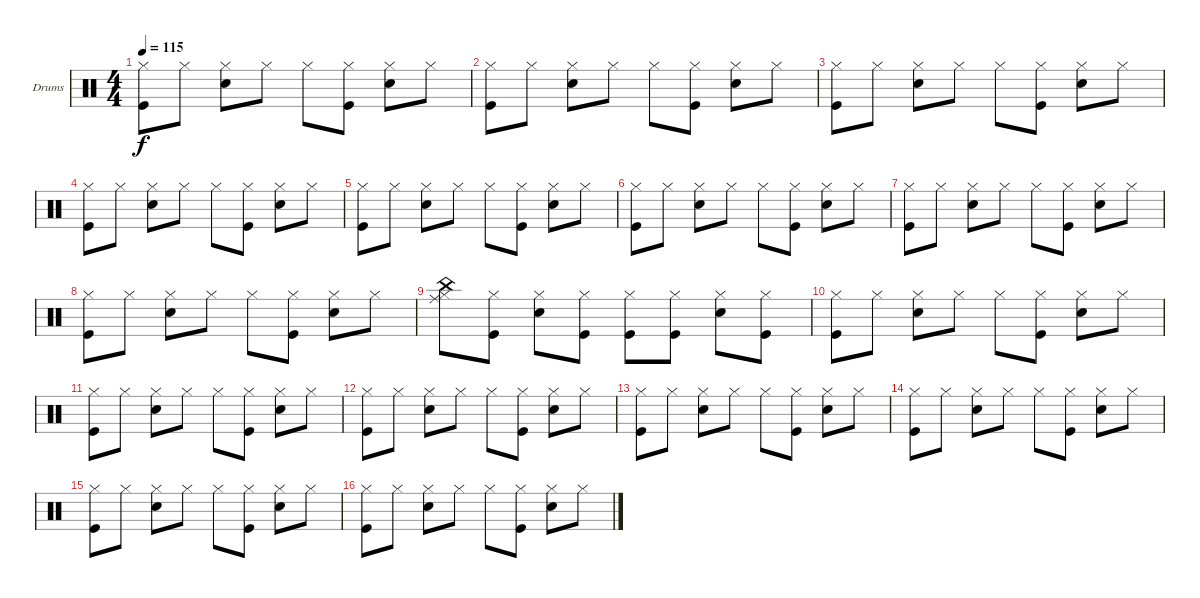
\defaultSystemsLayout 4
\bracketExtendMode groupsimilarinstruments
\firstSystemTrackNameOrientation horizontal
\otherSystemsTrackNameOrientation horizontal
\track ("Drumkit" "Drums") {instrument percussion}
\staff {score}
\articulation defaults
\ts (4 4)
\tempo 115
\clef neutral
\ks c
("Kick (hit)" "Hi-Hat (closed)").8{dy f} "Hi-Hat (closed)".8 ("Hi-Hat (closed)" "Snare (hit) 2").8 "Hi-Hat (closed)".8 "Hi-Hat (closed)".8 ("Hi-Hat (closed)" "Kick (hit)").8 ("Hi-Hat (closed)" "Snare (hit) 2").8 "Hi-Hat (closed)".8 |
("Kick (hit)" "Hi-Hat (closed)").8 "Hi-Hat (closed)".8 ("Hi-Hat (closed)" "Snare (hit) 2").8 "Hi-Hat (closed)".8 "Hi-Hat (closed)".8 ("Hi-Hat (closed)" "Kick (hit)").8 ("Hi-Hat (closed)" "Snare (hit) 2").8 "Hi-Hat (closed)".8 |
("Kick (hit)" "Hi-Hat (closed)").8 "Hi-Hat (closed)".8 ("Hi-Hat (closed)" "Snare (hit) 2").8 "Hi-Hat (closed)".8 "Hi-Hat (closed)".8 ("Hi-Hat (closed)" "Kick (hit)").8 ("Hi-Hat (closed)" "Snare (hit) 2").8 "Hi-Hat (closed)".8 |
("Kick (hit)" "Hi-Hat (closed)").8 "Hi-Hat (closed)".8 ("Hi-Hat (closed)" "Snare (hit) 2").8 "Hi-Hat (closed)".8 "Hi-Hat (closed)".8 ("Hi-Hat (closed)" "Kick (hit)").8 ("Hi-Hat (closed)" "Snare (hit) 2").8 "Hi-Hat (closed)".8 |
("Kick (hit)" "Hi-Hat (closed)").8 "Hi-Hat (closed)".8 ("Hi-Hat (closed)" "Snare (hit) 2").8 "Hi-Hat (closed)".8 "Hi-Hat (closed)".8 ("Hi-Hat (closed)" "Kick (hit)").8 ("Hi-Hat (closed)" "Snare (hit) 2").8 "Hi-Hat (closed)".8 |
("Kick (hit)" "Hi-Hat (closed)").8 "Hi-Hat (closed)".8 ("Hi-Hat (closed)" "Snare (hit) 2").8 "Hi-Hat (closed)".8 "Hi-Hat (closed)".8 ("Hi-Hat (closed)" "Kick (hit)").8 ("Hi-Hat (closed)" "Snare (hit) 2").8 "Hi-Hat (closed)".8 |
("Kick (hit)" "Hi-Hat (closed)").8 "Hi-Hat (closed)".8 ("Hi-Hat (closed)" "Snare (hit) 2").8 "Hi-Hat (closed)".8 "Hi-Hat (closed)".8 ("Hi-Hat (closed)" "Kick (hit)").8 ("Hi-Hat (closed)" "Snare (hit) 2").8 "Hi-Hat (closed)".8 |
("Kick (hit)" "Hi-Hat (closed)").8 "Hi-Hat (closed)".8 ("Hi-Hat (closed)" "Snare (hit) 2").8 "Hi-Hat (closed)".8 "Hi-Hat (closed)".8 ("Hi-Hat (closed)" "Kick (hit)").8 ("Hi-Hat (closed)" "Snare (hit) 2").8 "Hi-Hat (closed)".8 |
("China (hit)" "Hi-Hat (closed)" "Ride (middle)").8 ("Kick (hit)" "Hi-Hat (closed)").8 ("Hi-Hat (closed)" "Snare (hit) 2").8 ("Hi-Hat (closed)" "Kick (hit)").8 ("Hi-Hat (closed)" "Kick (hit)").8 ("Hi-Hat (closed)" "Kick (hit)").8 ("Hi-Hat (closed)" "Snare (hit) 2").8 ("Hi-Hat (closed)" "Kick (hit)").8 |
("Kick (hit)" "Hi-Hat (closed)").8 "Hi-Hat (closed)".8 ("Hi-Hat (closed)" "Snare (hit) 2").8 "Hi-Hat (closed)".8 "Hi-Hat (closed)".8 ("Hi-Hat (closed)" "Kick (hit)").8 ("Hi-Hat (closed)" "Snare (hit) 2").8 "Hi-Hat (closed)".8 |
("Kick (hit)" "Hi-Hat (closed)").8 "Hi-Hat (closed)".8 ("Hi-Hat (closed)" "Snare (hit) 2").8 "Hi-Hat (closed)".8 "Hi-Hat (closed)".8 ("Hi-Hat (closed)" "Kick (hit)").8 ("Hi-Hat (closed)" "Snare (hit) 2").8 "Hi-Hat (closed)".8 |
("Kick (hit)" "Hi-Hat (closed)").8 "Hi-Hat (closed)".8 ("Hi-Hat (closed)" "Snare (hit) 2").8 "Hi-Hat (closed)".8 "Hi-Hat (closed)".8 ("Hi-Hat (closed)" "Kick (hit)").8 ("Hi-Hat (closed)" "Snare (hit) 2").8 "Hi-Hat (closed)".8 |
("Kick (hit)" "Hi-Hat (closed)").8 "Hi-Hat (closed)".8 ("Hi-Hat (closed)" "Snare (hit) 2").8 "Hi-Hat (closed)".8 "Hi-Hat (closed)".8 ("Hi-Hat (closed)" "Kick (hit)").8 ("Hi-Hat (closed)" "Snare (hit) 2").8 "Hi-Hat (closed)".8 |
("Kick (hit)" "Hi-Hat (closed)").8 "Hi-Hat (closed)".8 ("Hi-Hat (closed)" "Snare (hit) 2").8 "Hi-Hat (closed)".8 "Hi-Hat (closed)".8 ("Hi-Hat (closed)" "Kick (hit)").8 ("Hi-Hat (closed)" "Snare (hit) 2").8 "Hi-Hat (closed)".8 |
("Kick (hit)" "Hi-Hat (closed)").8 "Hi-Hat (closed)".8 ("Hi-Hat (closed)" "Snare (hit) 2").8 "Hi-Hat (closed)".8 "Hi-Hat (closed)".8 ("Hi-Hat (closed)" "Kick (hit)").8 ("Hi-Hat (closed)" "Snare (hit) 2").8 "Hi-Hat (closed)".8 |
("Kick (hit)" "Hi-Hat (closed)").8 "Hi-Hat (closed)".8 ("Hi-Hat (closed)" "Snare (hit) 2").8 "Hi-Hat (closed)".8 "Hi-Hat (closed)".8 ("Hi-Hat (closed)" "Kick (hit)").8 ("Hi-Hat (closed)" "Snare (hit) 2").8 "Hi-Hat (closed)".8
